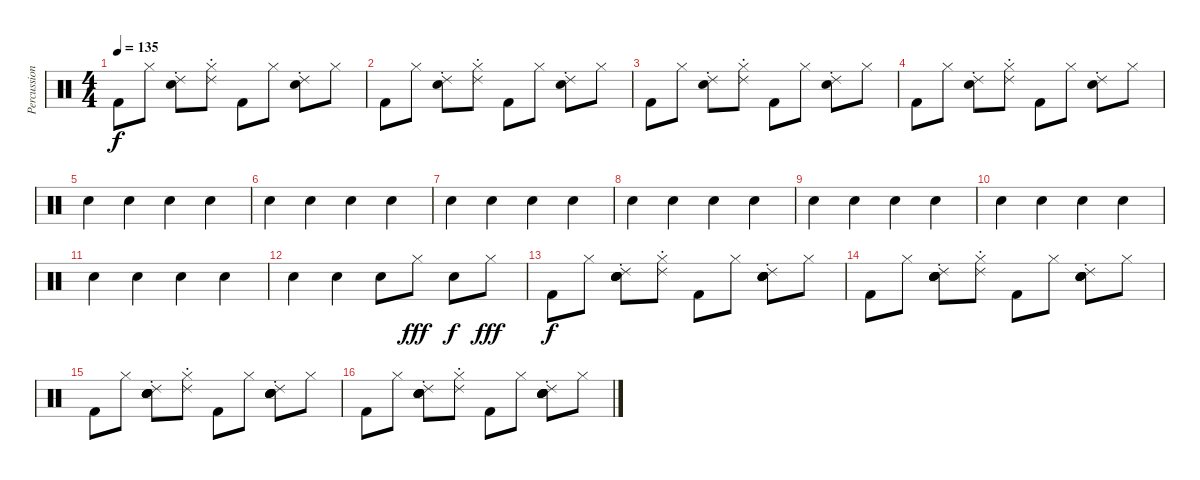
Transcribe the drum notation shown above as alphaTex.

\track ("Percussion" "Percussion") {instrument percussion}
\staff {score}
\articulation defaults
\ts (4 4)
\tempo 135
\clef neutral
\ks c "Kick (hit) 2".8{dy f} "Hi-Hat (closed)".8
("Snare (hit) 2" "Ride (choke) 2").8 ("Hi-Hat (closed)" "Ride (choke) 2").8 "Kick (hit) 2".8 "Hi-Hat (closed)".8 ("Snare (hit) 2" "Ride (choke) 2").8 "Hi-Hat (closed)".8 |
"Kick (hit) 2".8 "Hi-Hat (closed)".8 ("Snare (hit) 2" "Ride (choke) 2").8 ("Hi-Hat (closed)" "Ride (choke) 2").8 "Kick (hit) 2".8 "Hi-Hat (closed)".8 ("Snare (hit) 2" "Ride (choke) 2").8 "Hi-Hat (closed)".8 |
"Kick (hit) 2".8 "Hi-Hat (closed)".8 ("Snare (hit) 2" "Ride (choke) 2").8 ("Hi-Hat (closed)" "Ride (choke) 2").8 "Kick (hit) 2".8 "Hi-Hat (closed)".8 ("Snare (hit) 2" "Ride (choke) 2").8 "Hi-Hat (closed)".8 |
"Kick (hit) 2".8 "Hi-Hat (closed)".8 ("Snare (hit) 2" "Ride (choke) 2").8 ("Hi-Hat (closed)" "Ride (choke) 2").8 "Kick (hit) 2".8 "Hi-Hat (closed)".8 ("Snare (hit) 2" "Ride (choke) 2").8 "Hi-Hat (closed)".8 |
"Snare (hit) 2".4 "Snare (hit) 2".4 "Snare (hit) 2".4 "Snare (hit) 2".4 |
"Snare (hit) 2".4 "Snare (hit) 2".4 "Snare (hit) 2".4 "Snare (hit) 2".4 |
"Snare (hit) 2".4 "Snare (hit) 2".4 "Snare (hit) 2".4 "Snare (hit) 2".4 |
"Snare (hit) 2".4 "Snare (hit) 2".4 "Snare (hit) 2".4 "Snare (hit) 2".4 |
"Snare (hit) 2".4 "Snare (hit) 2".4 "Snare (hit) 2".4 "Snare (hit) 2".4 |
"Snare (hit) 2".4 "Snare (hit) 2".4 "Snare (hit) 2".4 "Snare (hit) 2".4 |
"Snare (hit) 2".4 "Snare (hit) 2".4 "Snare (hit) 2".4 "Snare (hit) 2".4 |
"Snare (hit) 2".4 "Snare (hit) 2".4 "Snare (hit) 2".8 "Hi-Hat (closed)".8{dy fff} "Snare (hit) 2".8{dy f} "Hi-Hat (closed)".8{dy fff} |
"Kick (hit) 2".8{dy f} "Hi-Hat (closed)".8 ("Snare (hit) 2" "Ride (choke) 2" "Hand Clap (hit)" "Hand Clap (hit)" "Hand Clap (hit)").8 ("Hi-Hat (closed)" "Ride (choke) 2").8 "Kick (hit) 2".8 "Hi-Hat (closed)".8 ("Snare (hit) 2" "Ride (choke) 2" "Hand Clap (hit)" "Hand Clap (hit)" "Hand Clap (hit)").8 "Hi-Hat (closed)".8 |
"Kick (hit) 2".8 "Hi-Hat (closed)".8 ("Snare (hit) 2" "Ride (choke) 2" "Hand Clap (hit)" "Hand Clap (hit)" "Hand Clap (hit)").8 ("Hi-Hat (closed)" "Ride (choke) 2").8 "Kick (hit) 2".8 "Hi-Hat (closed)".8 ("Snare (hit) 2" "Ride (choke) 2" "Hand Clap (hit)" "Hand Clap (hit)" "Hand Clap (hit)").8 "Hi-Hat (closed)".8 |
"Kick (hit) 2".8 "Hi-Hat (closed)".8 ("Snare (hit) 2" "Ride (choke) 2" "Hand Clap (hit)" "Hand Clap (hit)" "Hand Clap (hit)").8 ("Hi-Hat (closed)" "Ride (choke) 2").8 "Kick (hit) 2".8 "Hi-Hat (closed)".8 ("Snare (hit) 2" "Ride (choke) 2" "Hand Clap (hit)" "Hand Clap (hit)" "Hand Clap (hit)").8 "Hi-Hat (closed)".8 |
"Kick (hit) 2".8 "Hi-Hat (closed)".8 ("Snare (hit) 2" "Ride (choke) 2" "Hand Clap (hit)" "Hand Clap (hit)" "Hand Clap (hit)").8 ("Hi-Hat (closed)" "Ride (choke) 2").8 "Kick (hit) 2".8 "Hi-Hat (closed)".8 ("Snare (hit) 2" "Ride (choke) 2" "Hand Clap (hit)" "Hand Clap (hit)" "Hand Clap (hit)").8 "Hi-Hat (closed)".8
